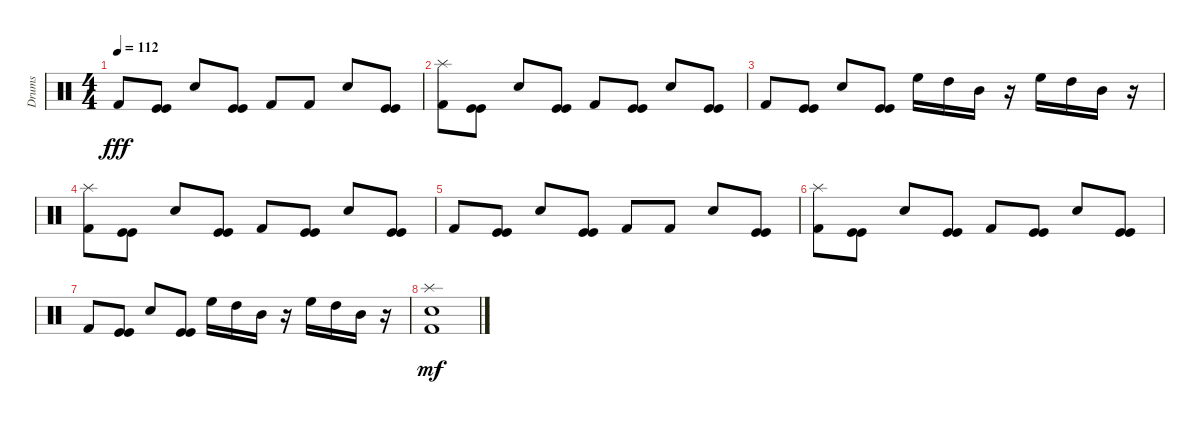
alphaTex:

\track ("Drums" "Drums") {instrument percussion}
\staff {score}
\articulation defaults
\ts (4 4)
\tempo 112
\clef neutral
\ks c "Kick (hit) 2".8{dy fff}
("Kick (hit)" "Kick (hit)").8 "Snare (hit) 2".8 ("Kick (hit)" "Kick (hit)").8 "Kick (hit) 2".8 "Kick (hit) 2".8 "Snare (hit) 2".8 ("Kick (hit)" "Kick (hit)").8 |
("Kick (hit) 2" "Splash (hit)").8 ("Kick (hit)" "Kick (hit)").8 "Snare (hit) 2".8 ("Kick (hit)" "Kick (hit)").8 "Kick (hit) 2".8 ("Kick (hit)" "Kick (hit)").8 "Snare (hit) 2".8 ("Kick (hit)" "Kick (hit)").8 |
"Kick (hit) 2".8 ("Kick (hit)" "Kick (hit)").8 "Snare (hit) 2".8 ("Kick (hit)" "Kick (hit)").8 "High Floor Tom (hit)".16 "High Tom (hit)".16 "Mid Tom (hit)".16 r.16 "High Floor Tom (hit)".16 "High Tom (hit)".16 "Mid Tom (hit)".16 r.16 |
("Kick (hit) 2" "Splash (hit)").8 ("Kick (hit)" "Kick (hit)").8 "Snare (hit) 2".8 ("Kick (hit)" "Kick (hit)").8 "Kick (hit) 2".8 ("Kick (hit)" "Kick (hit)").8 "Snare (hit) 2".8 ("Kick (hit)" "Kick (hit)").8 |
"Kick (hit) 2".8 ("Kick (hit)" "Kick (hit)").8 "Snare (hit) 2".8 ("Kick (hit)" "Kick (hit)").8 "Kick (hit) 2".8 "Kick (hit) 2".8 "Snare (hit) 2".8 ("Kick (hit)" "Kick (hit)").8 |
("Kick (hit) 2" "Splash (hit)").8 ("Kick (hit)" "Kick (hit)").8 "Snare (hit) 2".8 ("Kick (hit)" "Kick (hit)").8 "Kick (hit) 2".8 ("Kick (hit)" "Kick (hit)").8 "Snare (hit) 2".8 ("Kick (hit)" "Kick (hit)").8 |
"Kick (hit) 2".8 ("Kick (hit)" "Kick (hit)").8 "Snare (hit) 2".8 ("Kick (hit)" "Kick (hit)").8 "High Floor Tom (hit)".16 "High Tom (hit)".16 "Mid Tom (hit)".16 r.16 "High Floor Tom (hit)".16 "High Tom (hit)".16 "Mid Tom (hit)".16 r.16 |
("Kick (hit) 2" "Snare (hit) 2" "Splash (hit)").1{dy mf}
